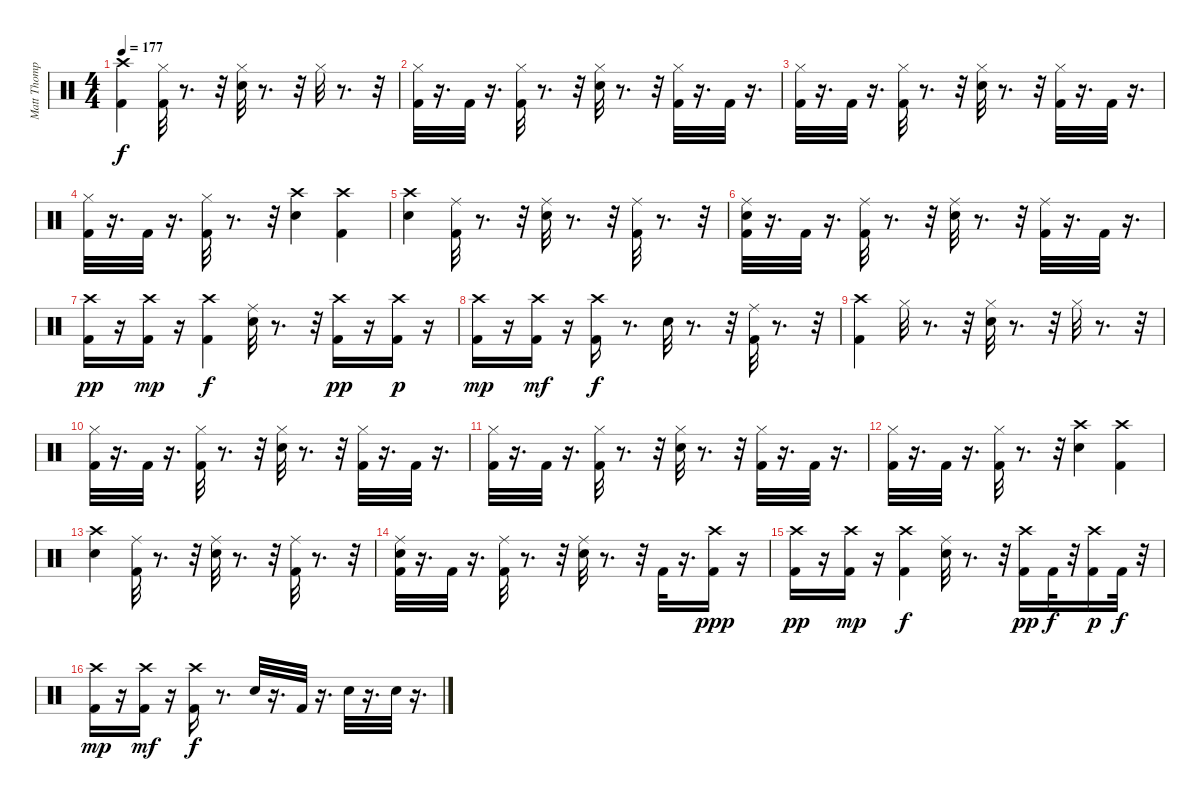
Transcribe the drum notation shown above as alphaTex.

\track ("Matt Thompson" "Matt Thomp") {instrument percussion}
\staff {score}
\articulation defaults
\ts (4 4)
\tempo 177
\clef neutral
\ks c
("Crash high (hit)" "Kick (hit) 2").4{dy f} ("Hi-Hat (closed)" "Kick (hit) 2").32 r.8{d} r.32 ("Hi-Hat (closed)" "Snare (hit) 2").32 r.8{d} r.32 "Hi-Hat (closed)".32 r.8{d} r.32 |
("Hi-Hat (closed)" "Kick (hit) 2").32 r.16{d} "Kick (hit) 2".32 r.16{d} ("Hi-Hat (closed)" "Kick (hit) 2").32 r.8{d} r.32 ("Hi-Hat (closed)" "Snare (hit) 2").32 r.8{d} r.32 ("Hi-Hat (closed)" "Kick (hit) 2").32 r.16{d} "Kick (hit) 2".32 r.16{d} |
("Kick (hit) 2" "Hi-Hat (closed)").32 r.16{d} "Kick (hit) 2".32 r.16{d} ("Kick (hit) 2" "Hi-Hat (closed)").32 r.8{d} r.32 ("Snare (hit) 2" "Hi-Hat (closed)").32 r.8{d} r.32 ("Kick (hit) 2" "Hi-Hat (closed)").32 r.16{d} "Kick (hit) 2".32 r.16{d} |
("Kick (hit) 2" "Hi-Hat (closed)").32 r.16{d} "Kick (hit) 2".32 r.16{d} ("Kick (hit) 2" "Hi-Hat (closed)").32 r.8{d} r.32 ("Snare (hit) 2" "Crash high (hit)").4 ("Kick (hit) 2" "Crash high (hit)").4 |
("Crash high (hit)" "Snare (hit) 2").4 ("Ride (middle)" "Kick (hit) 2").32 r.8{d} r.32 ("Ride (middle)" "Snare (hit) 2").32 r.8{d} r.32 ("Kick (hit) 2" "Ride (middle)").32 r.8{d} r.32 |
("Snare (hit) 2" "Ride (middle)" "Kick (hit) 2").32 r.16{d} "Kick (hit) 2".32 r.16{d} ("Ride (middle)" "Kick (hit) 2").32 r.8{d} r.32 ("Ride (middle)" "Snare (hit) 2").32 r.8{d} r.32 ("Ride (middle)" "Kick (hit) 2").32 r.16{d} "Kick (hit) 2".32 r.16{d} |
("Kick (hit) 2" "Crash high (hit)").16{dy pp} r.16 ("Crash high (hit)" "Kick (hit) 2").16{dy mp} r.16 ("Kick (hit) 2" "Crash high (hit)").4{dy f} ("Snare (hit) 2" "Ride (middle)").32 r.8{d} r.32 ("Kick (hit) 2" "Crash high (hit)").16{dy pp} r.16 ("Crash high (hit)" "Kick (hit) 2").16{dy p} r.16 |
("Crash high (hit)" "Kick (hit) 2").16{dy mp} r.16 ("Crash high (hit)" "Kick (hit) 2").16{dy mf} r.16 ("Crash high (hit)" "Kick (hit) 2").16{dy f} r.8{d} "Snare (hit) 2".32 r.8{d} r.32 ("Ride (middle)" "Kick (hit) 2").32 r.8{d} r.32 |
("Crash high (hit)" "Kick (hit) 2").4 "Hi-Hat (closed)".32 r.8{d} r.32 ("Hi-Hat (closed)" "Snare (hit) 2").32 r.8{d} r.32 "Hi-Hat (closed)".32 r.8{d} r.32 |
("Hi-Hat (closed)" "Kick (hit) 2").32 r.16{d} "Kick (hit) 2".32 r.16{d} ("Hi-Hat (closed)" "Kick (hit) 2").32 r.8{d} r.32 ("Hi-Hat (closed)" "Snare (hit) 2").32 r.8{d} r.32 ("Hi-Hat (closed)" "Kick (hit) 2").32 r.16{d} "Kick (hit) 2".32 r.16{d} |
("Kick (hit) 2" "Hi-Hat (closed)").32 r.16{d} "Kick (hit) 2".32 r.16{d} ("Kick (hit) 2" "Hi-Hat (closed)").32 r.8{d} r.32 ("Snare (hit) 2" "Hi-Hat (closed)").32 r.8{d} r.32 ("Kick (hit) 2" "Hi-Hat (closed)").32 r.16{d} "Kick (hit) 2".32 r.16{d} |
("Kick (hit) 2" "Hi-Hat (closed)").32 r.16{d} "Kick (hit) 2".32 r.16{d} ("Kick (hit) 2" "Hi-Hat (closed)").32 r.8{d} r.32 ("Snare (hit) 2" "Crash high (hit)").4 ("Kick (hit) 2" "Crash high (hit)").4 |
("Crash high (hit)" "Snare (hit) 2").4 ("Ride (middle)" "Kick (hit) 2").32 r.8{d} r.32 ("Ride (middle)" "Snare (hit) 2").32 r.8{d} r.32 ("Kick (hit) 2" "Ride (middle)").32 r.8{d} r.32 |
("Snare (hit) 2" "Ride (middle)" "Kick (hit) 2").32 r.16{d} "Kick (hit) 2".32 r.16{d} ("Ride (middle)" "Kick (hit) 2").32 r.8{d} r.32 ("Ride (middle)" "Snare (hit) 2").32 r.8{d} r.32 "Kick (hit) 2".32 r.16{d} ("Crash high (hit)" "Kick (hit) 2").16{dy ppp} r.16 |
("Kick (hit) 2" "Crash high (hit)").16{dy pp} r.16 ("Crash high (hit)" "Kick (hit) 2").16{dy mp} r.16 ("Kick (hit) 2" "Crash high (hit)").4{dy f} ("Snare (hit) 2" "Ride (middle)").32 r.8{d} r.32 ("Kick (hit) 2" "Crash high (hit)").16{dy pp} "Kick (hit) 2".32{dy f} r.32 ("Crash high (hit)" "Kick (hit) 2").16{dy p} "Kick (hit) 2".32{dy f} r.32 |
("Crash high (hit)" "Kick (hit) 2").16{dy mp} r.16 ("Crash high (hit)" "Kick (hit) 2").16{dy mf} r.16 ("Crash high (hit)" "Kick (hit) 2").16{dy f} r.8{d} "Snare (hit) 2".32 r.16{d} "Kick (hit) 2".32 r.16{d} "Snare (hit) 2".32 r.16{d} "Snare (hit) 2".32 r.16{d}
